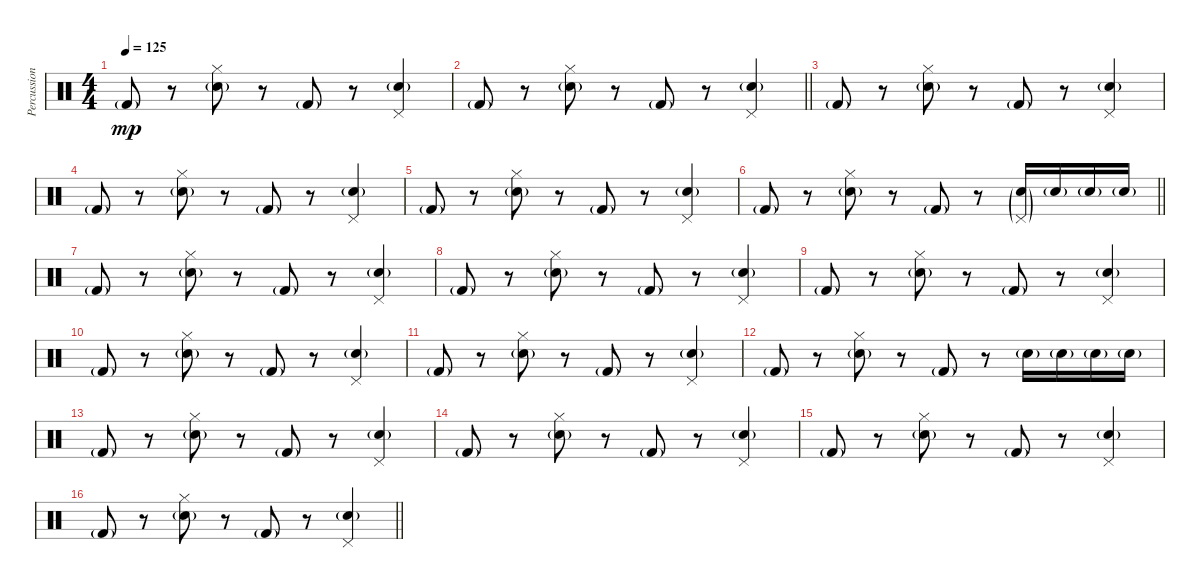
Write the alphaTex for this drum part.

\track ("Percussion" "Percussion") {instrument percussion}
\staff {score}
\articulation defaults
\ts (4 4)
\tempo 125
\clef neutral
\ks c "Kick (hit) 2"{g}.8{dy mp}
r.8 ("Electric Snare (hit)"{g} "Hi-Hat (closed)").8 r.8 "Kick (hit) 2"{g}.8 r.8 ("Electric Snare (hit)"{g} "Pedal Hi-Hat (hit)").4 |
\barLineRight lightlight "Kick (hit) 2"{g}.8
r.8 ("Electric Snare (hit)"{g} "Hi-Hat (closed)").8 r.8 "Kick (hit) 2"{g}.8 r.8 ("Electric Snare (hit)"{g} "Pedal Hi-Hat (hit)").4 |
"Kick (hit) 2"{g}.8 r.8 ("Electric Snare (hit)"{g} "Hi-Hat (closed)").8 r.8 "Kick (hit) 2"{g}.8 r.8 ("Electric Snare (hit)"{g} "Pedal Hi-Hat (hit)").4 |
"Kick (hit) 2"{g}.8 r.8 ("Electric Snare (hit)"{g} "Hi-Hat (closed)").8 r.8 "Kick (hit) 2"{g}.8 r.8 ("Electric Snare (hit)"{g} "Pedal Hi-Hat (hit)").4 |
"Kick (hit) 2"{g}.8 r.8 ("Electric Snare (hit)"{g} "Hi-Hat (closed)").8 r.8 "Kick (hit) 2"{g}.8 r.8 ("Electric Snare (hit)"{g} "Pedal Hi-Hat (hit)").4 |
\barLineRight lightlight "Kick (hit) 2"{g}.8
r.8 ("Electric Snare (hit)"{g} "Hi-Hat (closed)").8 r.8 "Kick (hit) 2"{g}.8 r.8 ("Electric Snare (hit)"{g} "Pedal Hi-Hat (hit)"{g}).16 "Electric Snare (hit)"{g}.16 "Electric Snare (hit)"{g}.16 "Electric Snare (hit)"{g}.16 |
"Kick (hit) 2"{g}.8 r.8 ("Electric Snare (hit)"{g} "Hi-Hat (closed)").8 r.8 "Kick (hit) 2"{g}.8 r.8 ("Electric Snare (hit)"{g} "Pedal Hi-Hat (hit)").4 |
"Kick (hit) 2"{g}.8 r.8 ("Electric Snare (hit)"{g} "Hi-Hat (closed)").8 r.8 "Kick (hit) 2"{g}.8 r.8 ("Electric Snare (hit)"{g} "Pedal Hi-Hat (hit)").4 |
"Kick (hit) 2"{g}.8 r.8 ("Electric Snare (hit)"{g} "Hi-Hat (closed)").8 r.8 "Kick (hit) 2"{g}.8 r.8 ("Electric Snare (hit)"{g} "Pedal Hi-Hat (hit)").4 |
"Kick (hit) 2"{g}.8 r.8 ("Electric Snare (hit)"{g} "Hi-Hat (closed)").8 r.8 "Kick (hit) 2"{g}.8 r.8 ("Electric Snare (hit)"{g} "Pedal Hi-Hat (hit)").4 |
"Kick (hit) 2"{g}.8 r.8 ("Electric Snare (hit)"{g} "Hi-Hat (closed)").8 r.8 "Kick (hit) 2"{g}.8 r.8 ("Electric Snare (hit)"{g} "Pedal Hi-Hat (hit)").4 |
"Kick (hit) 2"{g}.8 r.8 ("Electric Snare (hit)"{g} "Hi-Hat (closed)").8 r.8 "Kick (hit) 2"{g}.8 r.8 "Electric Snare (hit)"{g}.16 "Electric Snare (hit)"{g}.16 "Electric Snare (hit)"{g}.16 "Electric Snare (hit)"{g}.16 |
"Kick (hit) 2"{g}.8 r.8 ("Electric Snare (hit)"{g} "Hi-Hat (closed)").8 r.8 "Kick (hit) 2"{g}.8 r.8 ("Electric Snare (hit)"{g} "Pedal Hi-Hat (hit)").4 |
"Kick (hit) 2"{g}.8 r.8 ("Electric Snare (hit)"{g} "Hi-Hat (closed)").8 r.8 "Kick (hit) 2"{g}.8 r.8 ("Electric Snare (hit)"{g} "Pedal Hi-Hat (hit)").4 |
"Kick (hit) 2"{g}.8 r.8 ("Electric Snare (hit)"{g} "Hi-Hat (closed)").8 r.8 "Kick (hit) 2"{g}.8 r.8 ("Electric Snare (hit)"{g} "Pedal Hi-Hat (hit)").4 |
\barLineRight lightlight "Kick (hit) 2"{g}.8
r.8 ("Electric Snare (hit)"{g} "Hi-Hat (closed)").8 r.8 "Kick (hit) 2"{g}.8 r.8 ("Electric Snare (hit)"{g} "Pedal Hi-Hat (hit)").4
